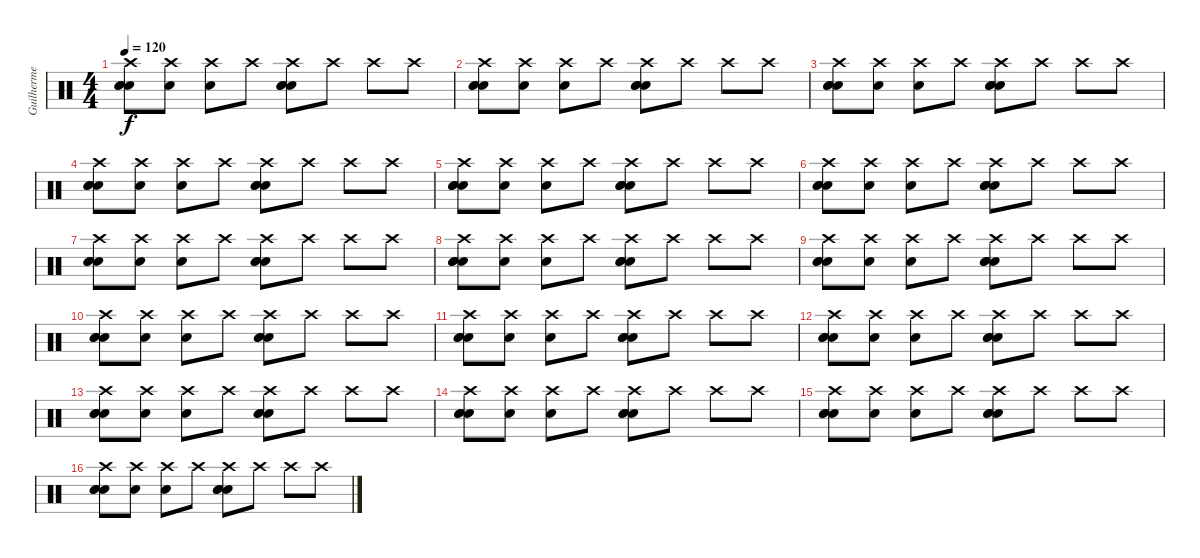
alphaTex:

\track ("Guilherme" "Guilherme") {instrument percussion}
\staff {score}
\articulation defaults
\ts (4 4)
\tempo 120
\clef neutral
\ks c
("Crash high (hit)" "Snare (hit) 2" "Snare (hit) 2" "Snare (hit) 2").8{dy f} ("Crash high (hit)" "Electric Snare (hit)").8 ("Crash high (hit)" "Electric Snare (hit)").8 "Crash high (hit)".8 ("Crash high (hit)" "Snare (hit) 2" "Snare (hit) 2" "Snare (hit) 2").8 "Crash high (hit)".8 "Crash high (hit)".8 "Crash high (hit)".8 |
("Crash high (hit)" "Snare (hit) 2" "Snare (hit) 2" "Snare (hit) 2").8 ("Crash high (hit)" "Electric Snare (hit)").8 ("Crash high (hit)" "Electric Snare (hit)").8 "Crash high (hit)".8 ("Crash high (hit)" "Snare (hit) 2" "Snare (hit) 2" "Snare (hit) 2").8 "Crash high (hit)".8 "Crash high (hit)".8 "Crash high (hit)".8 |
("Crash high (hit)" "Snare (hit) 2" "Snare (hit) 2" "Snare (hit) 2").8 ("Crash high (hit)" "Electric Snare (hit)").8 ("Crash high (hit)" "Electric Snare (hit)").8 "Crash high (hit)".8 ("Crash high (hit)" "Snare (hit) 2" "Snare (hit) 2" "Snare (hit) 2").8 "Crash high (hit)".8 "Crash high (hit)".8 "Crash high (hit)".8 |
("Crash high (hit)" "Snare (hit) 2" "Snare (hit) 2" "Snare (hit) 2").8 ("Crash high (hit)" "Electric Snare (hit)").8 ("Crash high (hit)" "Electric Snare (hit)").8 "Crash high (hit)".8 ("Crash high (hit)" "Snare (hit) 2" "Snare (hit) 2" "Snare (hit) 2").8 "Crash high (hit)".8 "Crash high (hit)".8 "Crash high (hit)".8 |
("Crash high (hit)" "Snare (hit) 2" "Snare (hit) 2" "Snare (hit) 2").8 ("Crash high (hit)" "Electric Snare (hit)").8 ("Crash high (hit)" "Electric Snare (hit)").8 "Crash high (hit)".8 ("Crash high (hit)" "Snare (hit) 2" "Snare (hit) 2" "Snare (hit) 2").8 "Crash high (hit)".8 "Crash high (hit)".8 "Crash high (hit)".8 |
("Crash high (hit)" "Snare (hit) 2" "Snare (hit) 2" "Snare (hit) 2").8 ("Crash high (hit)" "Electric Snare (hit)").8 ("Crash high (hit)" "Electric Snare (hit)").8 "Crash high (hit)".8 ("Crash high (hit)" "Snare (hit) 2" "Snare (hit) 2" "Snare (hit) 2").8 "Crash high (hit)".8 "Crash high (hit)".8 "Crash high (hit)".8 |
("Crash high (hit)" "Snare (hit) 2" "Snare (hit) 2" "Snare (hit) 2").8 ("Crash high (hit)" "Electric Snare (hit)").8 ("Crash high (hit)" "Electric Snare (hit)").8 "Crash high (hit)".8 ("Crash high (hit)" "Snare (hit) 2" "Snare (hit) 2" "Snare (hit) 2").8 "Crash high (hit)".8 "Crash high (hit)".8 "Crash high (hit)".8 |
("Crash high (hit)" "Snare (hit) 2" "Snare (hit) 2" "Snare (hit) 2").8 ("Crash high (hit)" "Electric Snare (hit)").8 ("Crash high (hit)" "Electric Snare (hit)").8 "Crash high (hit)".8 ("Crash high (hit)" "Snare (hit) 2" "Snare (hit) 2" "Snare (hit) 2").8 "Crash high (hit)".8 "Crash high (hit)".8 "Crash high (hit)".8 |
("Crash high (hit)" "Snare (hit) 2" "Snare (hit) 2" "Snare (hit) 2").8 ("Crash high (hit)" "Electric Snare (hit)").8 ("Crash high (hit)" "Electric Snare (hit)").8 "Crash high (hit)".8 ("Crash high (hit)" "Snare (hit) 2" "Snare (hit) 2" "Snare (hit) 2").8 "Crash high (hit)".8 "Crash high (hit)".8 "Crash high (hit)".8 |
("Crash high (hit)" "Snare (hit) 2" "Snare (hit) 2" "Snare (hit) 2").8 ("Crash high (hit)" "Electric Snare (hit)").8 ("Crash high (hit)" "Electric Snare (hit)").8 "Crash high (hit)".8 ("Crash high (hit)" "Snare (hit) 2" "Snare (hit) 2" "Snare (hit) 2").8 "Crash high (hit)".8 "Crash high (hit)".8 "Crash high (hit)".8 |
("Crash high (hit)" "Snare (hit) 2" "Snare (hit) 2" "Snare (hit) 2").8 ("Crash high (hit)" "Electric Snare (hit)").8 ("Crash high (hit)" "Electric Snare (hit)").8 "Crash high (hit)".8 ("Crash high (hit)" "Snare (hit) 2" "Snare (hit) 2" "Snare (hit) 2").8 "Crash high (hit)".8 "Crash high (hit)".8 "Crash high (hit)".8 |
("Crash high (hit)" "Snare (hit) 2" "Snare (hit) 2" "Snare (hit) 2").8 ("Crash high (hit)" "Electric Snare (hit)").8 ("Crash high (hit)" "Electric Snare (hit)").8 "Crash high (hit)".8 ("Crash high (hit)" "Snare (hit) 2" "Snare (hit) 2" "Snare (hit) 2").8 "Crash high (hit)".8 "Crash high (hit)".8 "Crash high (hit)".8 |
("Crash high (hit)" "Snare (hit) 2" "Snare (hit) 2" "Snare (hit) 2").8 ("Crash high (hit)" "Electric Snare (hit)").8 ("Crash high (hit)" "Electric Snare (hit)").8 "Crash high (hit)".8 ("Crash high (hit)" "Snare (hit) 2" "Snare (hit) 2" "Snare (hit) 2").8 "Crash high (hit)".8 "Crash high (hit)".8 "Crash high (hit)".8 |
("Crash high (hit)" "Snare (hit) 2" "Snare (hit) 2" "Snare (hit) 2").8 ("Crash high (hit)" "Electric Snare (hit)").8 ("Crash high (hit)" "Electric Snare (hit)").8 "Crash high (hit)".8 ("Crash high (hit)" "Snare (hit) 2" "Snare (hit) 2" "Snare (hit) 2").8 "Crash high (hit)".8 "Crash high (hit)".8 "Crash high (hit)".8 |
("Crash high (hit)" "Snare (hit) 2" "Snare (hit) 2" "Snare (hit) 2").8 ("Crash high (hit)" "Electric Snare (hit)").8 ("Crash high (hit)" "Electric Snare (hit)").8 "Crash high (hit)".8 ("Crash high (hit)" "Snare (hit) 2" "Snare (hit) 2" "Snare (hit) 2").8 "Crash high (hit)".8 "Crash high (hit)".8 "Crash high (hit)".8 |
("Crash high (hit)" "Snare (hit) 2" "Snare (hit) 2" "Snare (hit) 2").8 ("Crash high (hit)" "Electric Snare (hit)").8 ("Crash high (hit)" "Electric Snare (hit)").8 "Crash high (hit)".8 ("Crash high (hit)" "Snare (hit) 2" "Snare (hit) 2" "Snare (hit) 2").8 "Crash high (hit)".8 "Crash high (hit)".8 "Crash high (hit)".8
